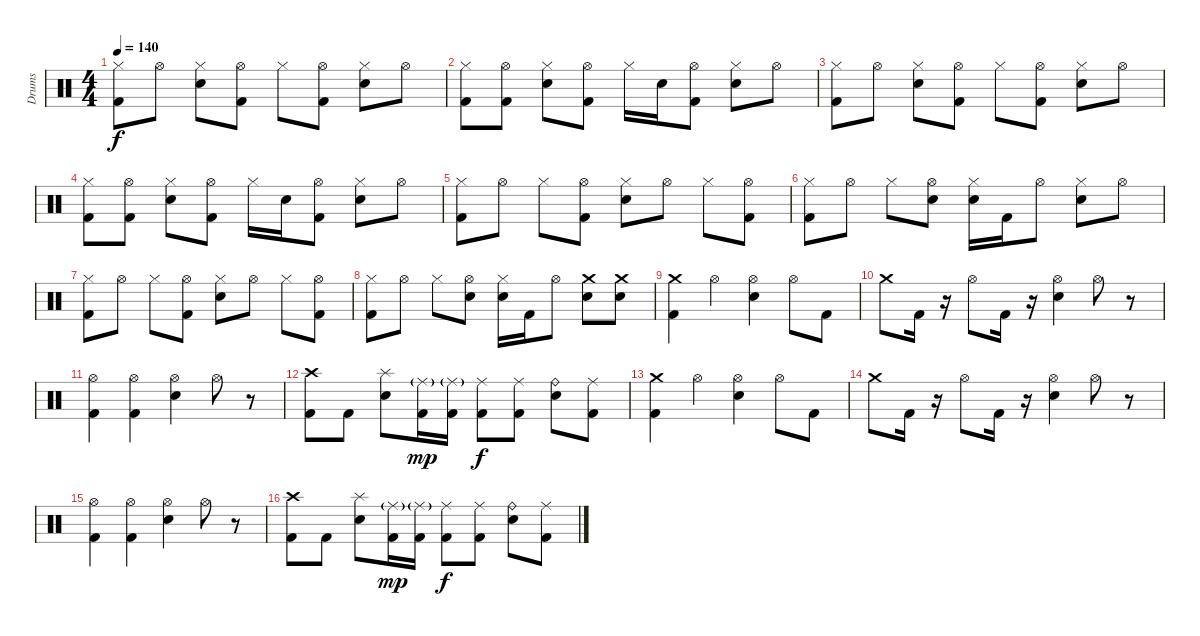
\track ("Drums" "Drums") {instrument percussion}
\staff {score}
\articulation defaults
\ts (4 4)
\tempo 140
\clef neutral
\ks c
("Hi-Hat (closed)" "Kick (hit) 2").8{dy f} "Hi-Hat (open)".8 ("Hi-Hat (closed)" "Electric Snare (hit)").8 ("Hi-Hat (open)" "Kick (hit) 2").8 "Hi-Hat (closed)".8 ("Hi-Hat (open)" "Kick (hit) 2").8 ("Hi-Hat (closed)" "Electric Snare (hit)").8 "Hi-Hat (open)".8 |
("Hi-Hat (closed)" "Kick (hit) 2").8 ("Hi-Hat (open)" "Kick (hit) 2").8 ("Hi-Hat (closed)" "Electric Snare (hit)").8 ("Hi-Hat (open)" "Kick (hit) 2").8 "Hi-Hat (closed)".16 "Electric Snare (hit)".16 ("Hi-Hat (open)" "Kick (hit) 2").8 ("Hi-Hat (closed)" "Electric Snare (hit)").8 "Hi-Hat (open)".8 |
("Hi-Hat (closed)" "Kick (hit) 2").8 "Hi-Hat (open)".8 ("Hi-Hat (closed)" "Electric Snare (hit)").8 ("Hi-Hat (open)" "Kick (hit) 2").8 "Hi-Hat (closed)".8 ("Hi-Hat (open)" "Kick (hit) 2").8 ("Hi-Hat (closed)" "Electric Snare (hit)").8 "Hi-Hat (open)".8 |
("Hi-Hat (closed)" "Kick (hit) 2").8 ("Hi-Hat (open)" "Kick (hit) 2").8 ("Hi-Hat (closed)" "Electric Snare (hit)").8 ("Hi-Hat (open)" "Kick (hit) 2").8 "Hi-Hat (closed)".16 "Electric Snare (hit)".16 ("Hi-Hat (open)" "Kick (hit) 2").8 ("Hi-Hat (closed)" "Electric Snare (hit)").8 "Hi-Hat (open)".8 |
("Hi-Hat (closed)" "Kick (hit) 2").8 "Hi-Hat (open)".8 "Hi-Hat (closed)".8 ("Hi-Hat (open)" "Kick (hit) 2").8 ("Hi-Hat (closed)" "Electric Snare (hit)").8 "Hi-Hat (open)".8 "Hi-Hat (closed)".8 ("Hi-Hat (open)" "Kick (hit) 2").8 |
("Hi-Hat (closed)" "Kick (hit) 2").8 "Hi-Hat (open)".8 "Hi-Hat (closed)".8 ("Hi-Hat (open)" "Electric Snare (hit)").8 ("Hi-Hat (closed)" "Electric Snare (hit)").16 "Kick (hit) 2".16 "Hi-Hat (open)".8 ("Hi-Hat (closed)" "Electric Snare (hit)").8 "Hi-Hat (open)".8 |
("Hi-Hat (closed)" "Kick (hit) 2").8 "Hi-Hat (open)".8 "Hi-Hat (closed)".8 ("Hi-Hat (open)" "Kick (hit) 2").8 ("Hi-Hat (closed)" "Electric Snare (hit)").8 "Hi-Hat (open)".8 "Hi-Hat (closed)".8 ("Hi-Hat (open)" "Kick (hit) 2").8 |
("Hi-Hat (closed)" "Kick (hit) 2").8 "Hi-Hat (open)".8 "Hi-Hat (closed)".8 ("Hi-Hat (open)" "Electric Snare (hit)").8 ("Hi-Hat (closed)" "Electric Snare (hit)").16 "Kick (hit) 2".16 "Hi-Hat (open)".8 ("Crash medium (hit)" "Electric Snare (hit)").8 ("Crash medium (hit)" "Electric Snare (hit)").8 |
("Crash medium (hit)" "Kick (hit) 2").4 "Hi-Hat (open)".4 ("Hi-Hat (open)" "Electric Snare (hit)").4 "Hi-Hat (open)".8 "Kick (hit) 2".8 |
"Crash medium (hit)".8 "Kick (hit) 2".16 r.16 "Hi-Hat (open)".8 "Kick (hit) 2".16 r.16 ("Hi-Hat (open)" "Electric Snare (hit)").4 "Hi-Hat (open)".8 r.8 |
("Hi-Hat (open)" "Kick (hit) 2").4 ("Hi-Hat (open)" "Kick (hit) 2").4 ("Hi-Hat (open)" "Electric Snare (hit)").4 "Hi-Hat (open)".8 r.8 |
("Crash high (hit)" "Kick (hit) 2").8 "Kick (hit) 2".8 ("Splash (hit)" "Electric Snare (hit)").8 ("Ride (middle)"{g} "Kick (hit) 2").16{dy mp} ("Ride (middle)"{g} "Kick (hit) 2").16 ("Ride (middle)" "Kick (hit) 2").8{dy f} ("Ride (middle)" "Kick (hit) 2").8 ("Ride (bell)" "Electric Snare (hit)").8 ("Ride (middle)" "Kick (hit) 2").8 |
("Crash medium (hit)" "Kick (hit) 2").4 "Hi-Hat (open)".4 ("Hi-Hat (open)" "Electric Snare (hit)").4 "Hi-Hat (open)".8 "Kick (hit) 2".8 |
"Crash medium (hit)".8 "Kick (hit) 2".16 r.16 "Hi-Hat (open)".8 "Kick (hit) 2".16 r.16 ("Hi-Hat (open)" "Electric Snare (hit)").4 "Hi-Hat (open)".8 r.8 |
("Hi-Hat (open)" "Kick (hit) 2").4 ("Hi-Hat (open)" "Kick (hit) 2").4 ("Hi-Hat (open)" "Electric Snare (hit)").4 "Hi-Hat (open)".8 r.8 |
("Crash high (hit)" "Kick (hit) 2").8 "Kick (hit) 2".8 ("Splash (hit)" "Electric Snare (hit)").8 ("Ride (middle)"{g} "Kick (hit) 2").16{dy mp} ("Ride (middle)"{g} "Kick (hit) 2").16 ("Ride (middle)" "Kick (hit) 2").8{dy f} ("Ride (middle)" "Kick (hit) 2").8 ("Ride (bell)" "Electric Snare (hit)").8 ("Ride (middle)" "Kick (hit) 2").8
